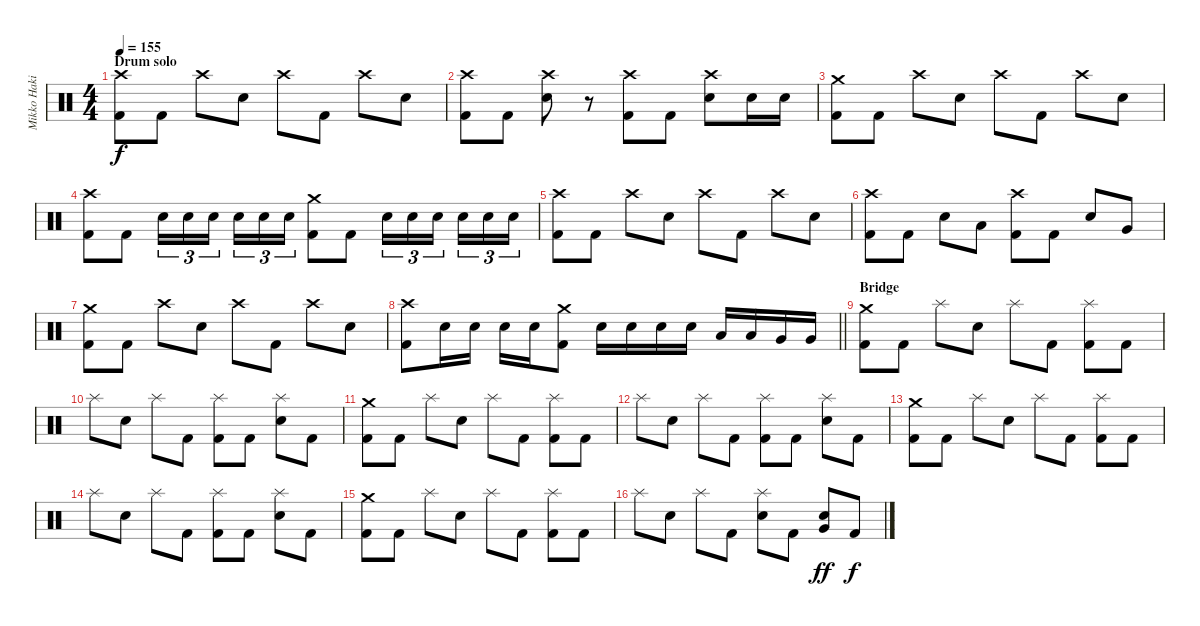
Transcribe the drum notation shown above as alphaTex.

\track ("Mikko Hakila - Drums" "Mikko Haki") {instrument percussion}
\staff {score}
\articulation defaults
\ts (4 4)
\section ("" "Drum solo")
\tempo 155
\clef neutral
\ks c
("Crash high (hit)" "Kick (hit) 2").8{dy f} "Kick (hit) 2".8 "Crash high (hit)".8 "Electric Snare (hit)".8 "Crash high (hit)".8 "Kick (hit) 2".8 "Crash high (hit)".8 "Electric Snare (hit)".8 |
("Crash high (hit)" "Kick (hit) 2").8 "Kick (hit) 2".8 ("Crash high (hit)" "Electric Snare (hit)").8 r.8 ("Crash high (hit)" "Kick (hit) 2").8 "Kick (hit) 2".8 ("Crash high (hit)" "Electric Snare (hit)").8 "Electric Snare (hit)".16 "Electric Snare (hit)".16 |
("Crash medium (hit)" "Kick (hit) 2").8 "Kick (hit) 2".8 "Crash high (hit)".8 "Electric Snare (hit)".8 "Crash high (hit)".8 "Kick (hit) 2".8 "Crash high (hit)".8 "Electric Snare (hit)".8 |
("Crash high (hit)" "Kick (hit) 2").8 "Kick (hit) 2".8 "Electric Snare (hit)".16{tu (3 2)} "Electric Snare (hit)".16{tu (3 2)} "Electric Snare (hit)".16{tu (3 2)} "Electric Snare (hit)".16{tu (3 2)} "Electric Snare (hit)".16{tu (3 2)} "Electric Snare (hit)".16{tu (3 2)} ("Crash medium (hit)" "Kick (hit) 2").8 "Kick (hit) 2".8 "Electric Snare (hit)".16{tu (3 2)} "Electric Snare (hit)".16{tu (3 2)} "Electric Snare (hit)".16{tu (3 2)} "Electric Snare (hit)".16{tu (3 2)} "Electric Snare (hit)".16{tu (3 2)} "Electric Snare (hit)".16{tu (3 2)} |
("Crash high (hit)" "Kick (hit) 2").8 "Kick (hit) 2".8 "Crash high (hit)".8 "Electric Snare (hit)".8 "Crash high (hit)".8 "Kick (hit) 2".8 "Crash high (hit)".8 "Electric Snare (hit)".8 |
("Crash high (hit)" "Kick (hit) 2").8 "Kick (hit) 2".8 "Electric Snare (hit)".8 "Low Tom (hit)".8 ("Crash high (hit)" "Kick (hit) 2").8 "Kick (hit) 2".8 "Electric Snare (hit)".8 "Very Low Tom (hit)".8 |
("Crash medium (hit)" "Kick (hit) 2").8 "Kick (hit) 2".8 "Crash high (hit)".8 "Electric Snare (hit)".8 "Crash high (hit)".8 "Kick (hit) 2".8 "Crash high (hit)".8 "Electric Snare (hit)".8 |
\barLineRight lightlight
("Crash high (hit)" "Kick (hit) 2").8 "Electric Snare (hit)".16 "Electric Snare (hit)".16 "Electric Snare (hit)".16 "Electric Snare (hit)".16 ("Crash medium (hit)" "Kick (hit) 2").8 "Electric Snare (hit)".16 "Electric Snare (hit)".16 "Electric Snare (hit)".16 "Electric Snare (hit)".16 "Low Tom (hit)".16 "Low Tom (hit)".16 "Very Low Tom (hit)".16 "Very Low Tom (hit)".16 |
\section ("" "Bridge")
("Crash medium (hit)" "Kick (hit) 2").8 "Kick (hit) 2".8 "Splash (hit)".8 "Electric Snare (hit)".8 "Splash (hit)".8 "Kick (hit) 2".8 ("Splash (hit)" "Kick (hit) 2").8 "Kick (hit) 2".8 |
"Splash (hit)".8 "Electric Snare (hit)".8 "Splash (hit)".8 "Kick (hit) 2".8 ("Splash (hit)" "Kick (hit) 2").8 "Kick (hit) 2".8 ("Splash (hit)" "Electric Snare (hit)").8 "Kick (hit) 2".8 |
("Crash medium (hit)" "Kick (hit) 2").8 "Kick (hit) 2".8 "Splash (hit)".8 "Electric Snare (hit)".8 "Splash (hit)".8 "Kick (hit) 2".8 ("Splash (hit)" "Kick (hit) 2").8 "Kick (hit) 2".8 |
"Splash (hit)".8 "Electric Snare (hit)".8 "Splash (hit)".8 "Kick (hit) 2".8 ("Splash (hit)" "Kick (hit) 2").8 "Kick (hit) 2".8 ("Splash (hit)" "Electric Snare (hit)").8 "Kick (hit) 2".8 |
("Crash medium (hit)" "Kick (hit) 2").8 "Kick (hit) 2".8 "Splash (hit)".8 "Electric Snare (hit)".8 "Splash (hit)".8 "Kick (hit) 2".8 ("Splash (hit)" "Kick (hit) 2").8 "Kick (hit) 2".8 |
"Splash (hit)".8 "Electric Snare (hit)".8 "Splash (hit)".8 "Kick (hit) 2".8 ("Splash (hit)" "Kick (hit) 2").8 "Kick (hit) 2".8 ("Splash (hit)" "Electric Snare (hit)").8 "Kick (hit) 2".8 |
("Crash medium (hit)" "Kick (hit) 2").8 "Kick (hit) 2".8 "Splash (hit)".8 "Electric Snare (hit)".8 "Splash (hit)".8 "Kick (hit) 2".8 ("Splash (hit)" "Kick (hit) 2").8 "Kick (hit) 2".8 |
"Splash (hit)".8 "Electric Snare (hit)".8 "Splash (hit)".8 "Kick (hit) 2".8 ("Splash (hit)" "Electric Snare (hit)").8 "Kick (hit) 2".8 ("Electric Snare (hit)" "Very Low Tom (hit)").8{dy ff} "Kick (hit) 2".8{dy f}
